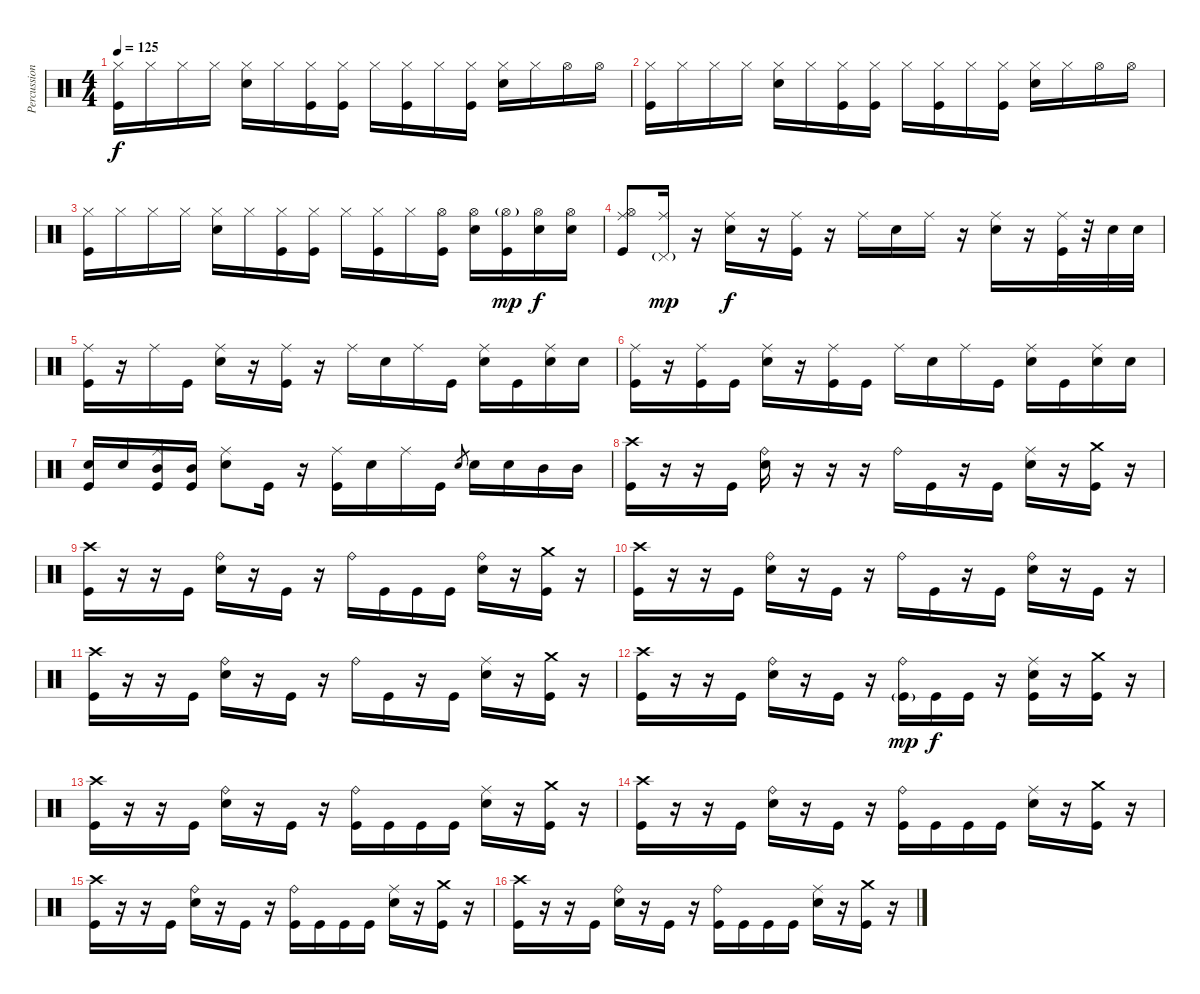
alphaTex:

\track ("Percussion" "Percussion") {instrument percussion}
\staff {score}
\articulation defaults
\ts (4 4)
\tempo 125
\clef neutral
\ks c
("Hi-Hat (closed)" "Kick (hit)").16{dy f} "Hi-Hat (closed)".16 "Hi-Hat (closed)".16 "Hi-Hat (closed)".16 ("Hi-Hat (closed)" "Electric Snare (hit)").16 "Hi-Hat (closed)".16 ("Hi-Hat (closed)" "Kick (hit)").16 ("Hi-Hat (closed)" "Kick (hit)").16 "Hi-Hat (closed)".16 ("Hi-Hat (closed)" "Kick (hit)").16 "Hi-Hat (closed)".16 ("Hi-Hat (closed)" "Kick (hit)").16 ("Hi-Hat (closed)" "Electric Snare (hit)").16 "Hi-Hat (closed)".16 "Hi-Hat (open)".16 "Hi-Hat (open)".16 |
("Hi-Hat (closed)" "Kick (hit)").16 "Hi-Hat (closed)".16 "Hi-Hat (closed)".16 "Hi-Hat (closed)".16 ("Hi-Hat (closed)" "Electric Snare (hit)").16 "Hi-Hat (closed)".16 ("Hi-Hat (closed)" "Kick (hit)").16 ("Hi-Hat (closed)" "Kick (hit)").16 "Hi-Hat (closed)".16 ("Hi-Hat (closed)" "Kick (hit)").16 "Hi-Hat (closed)".16 ("Hi-Hat (closed)" "Kick (hit)").16 ("Hi-Hat (closed)" "Electric Snare (hit)").16 "Hi-Hat (closed)".16 "Hi-Hat (open)".16 "Hi-Hat (open)".16 |
("Hi-Hat (closed)" "Kick (hit)").16 "Hi-Hat (closed)".16 "Hi-Hat (closed)".16 "Hi-Hat (closed)".16 ("Hi-Hat (closed)" "Electric Snare (hit)").16 "Hi-Hat (closed)".16 ("Hi-Hat (closed)" "Kick (hit)").16 ("Hi-Hat (closed)" "Kick (hit)").16 "Hi-Hat (closed)".16 ("Hi-Hat (closed)" "Kick (hit)").16 "Hi-Hat (closed)".16 ("Hi-Hat (open)" "Kick (hit)").16 ("Hi-Hat (open)" "Electric Snare (hit)").16 ("Hi-Hat (open)"{g} "Kick (hit)").16{dy mp} ("Hi-Hat (open)" "Electric Snare (hit)").16{dy f} ("Hi-Hat (open)" "Electric Snare (hit)").16 |
("Ride (middle)" "Hi-Hat (open)" "Kick (hit)").8 ("Ride (middle)" "Pedal Hi-Hat (hit)"{g}).16{dy mp} r.16 ("Ride (middle)" "Electric Snare (hit)").16{dy f} r.16 ("Ride (middle)" "Kick (hit)").16 r.16 "Ride (middle)".16 "Electric Snare (hit)".16 "Ride (middle)".16 r.16 ("Ride (middle)" "Electric Snare (hit)").16 r.16 ("Ride (middle)" "Kick (hit)").32 r.32 "Electric Snare (hit)".32 "Electric Snare (hit)".32 |
("Ride (middle)" "Kick (hit)").16 r.16 "Ride (middle)".16 "Kick (hit)".16 ("Ride (middle)" "Electric Snare (hit)").16 r.16 ("Ride (middle)" "Kick (hit)").16 r.16 "Ride (middle)".16 "Electric Snare (hit)".16 "Ride (middle)".16 "Kick (hit)".16 ("Ride (middle)" "Electric Snare (hit)").16 "Kick (hit)".16 ("Ride (middle)" "Electric Snare (hit)").16 "Electric Snare (hit)".16 |
("Ride (middle)" "Kick (hit)").16 r.16 ("Ride (middle)" "Kick (hit)").16 "Kick (hit)".16 ("Ride (middle)" "Electric Snare (hit)").16 r.16 ("Ride (middle)" "Kick (hit)").16 "Kick (hit)".16 "Ride (middle)".16 "Electric Snare (hit)".16 "Ride (middle)".16 "Kick (hit)".16 ("Ride (middle)" "Electric Snare (hit)").16 "Kick (hit)".16 ("Ride (middle)" "Electric Snare (hit)").16 "Electric Snare (hit)".16 |
("Electric Snare (hit)" "Kick (hit)").16 "Electric Snare (hit)".16 ("Ride (middle)" "Mid Tom (hit)" "Kick (hit)").16 ("Mid Tom (hit)" "Kick (hit)").16 ("Ride (middle)" "Electric Snare (hit)").8 "Kick (hit)".16 r.16 ("Ride (middle)" "Kick (hit)").16 "Electric Snare (hit)".16 "Ride (middle)".16 "Kick (hit)".16 "Electric Snare (hit)".8{gr} "Electric Snare (hit)".16 "Electric Snare (hit)".16 "Mid Tom (hit)".16 "Mid Tom (hit)".16 |
("Crash high (hit)" "Kick (hit)").16 r.16 r.16 "Kick (hit)".16 ("Ride (bell)" "Electric Snare (hit)").16 r.16 r.16 r.16 "Ride (bell)".16 "Kick (hit)".16 r.16 "Kick (hit)".16 ("Ride (middle)" "Electric Snare (hit)").16 r.16 ("Crash medium (hit)" "Kick (hit)").16 r.16 |
("Crash high (hit)" "Kick (hit)").16 r.16 r.16 "Kick (hit)".16 ("Ride (bell)" "Electric Snare (hit)").16 r.16 "Kick (hit)".16 r.16 "Ride (bell)".16 "Kick (hit)".16 "Kick (hit)".16 "Kick (hit)".16 ("Ride (bell)" "Electric Snare (hit)").16 r.16 ("Crash medium (hit)" "Kick (hit)").16 r.16 |
("Crash high (hit)" "Kick (hit)").16 r.16 r.16 "Kick (hit)".16 ("Ride (bell)" "Electric Snare (hit)").16 r.16 "Kick (hit)".16 r.16 "Ride (bell)".16 "Kick (hit)".16 r.16 "Kick (hit)".16 ("Ride (bell)" "Electric Snare (hit)").16 r.16 "Kick (hit)".16 r.16 |
("Crash high (hit)" "Kick (hit)").16 r.16 r.16 "Kick (hit)".16 ("Ride (bell)" "Electric Snare (hit)").16 r.16 "Kick (hit)".16 r.16 "Ride (bell)".16 "Kick (hit)".16 r.16 "Kick (hit)".16 ("Ride (middle)" "Electric Snare (hit)").16 r.16 ("Crash medium (hit)" "Kick (hit)").16 r.16 |
("Crash high (hit)" "Kick (hit)").16 r.16 r.16 "Kick (hit)".16 ("Ride (bell)" "Electric Snare (hit)").16 r.16 "Kick (hit)".16 r.16 ("Ride (bell)" "Kick (hit)"{g}).16{dy mp} "Kick (hit)".16{dy f} "Kick (hit)".16 r.16 ("Ride (middle)" "Electric Snare (hit)" "Kick (hit)").16 r.16 ("Crash medium (hit)" "Kick (hit)").16 r.16 |
("Crash high (hit)" "Kick (hit)").16 r.16 r.16 "Kick (hit)".16 ("Ride (bell)" "Electric Snare (hit)").16 r.16 "Kick (hit)".16 r.16 ("Ride (bell)" "Kick (hit)").16 "Kick (hit)".16 "Kick (hit)".16 "Kick (hit)".16 ("Ride (middle)" "Electric Snare (hit)").16 r.16 ("Crash medium (hit)" "Kick (hit)").16 r.16 |
("Crash high (hit)" "Kick (hit)").16 r.16 r.16 "Kick (hit)".16 ("Ride (bell)" "Electric Snare (hit)").16 r.16 "Kick (hit)".16 r.16 ("Ride (bell)" "Kick (hit)").16 "Kick (hit)".16 "Kick (hit)".16 "Kick (hit)".16 ("Ride (middle)" "Electric Snare (hit)").16 r.16 ("Crash medium (hit)" "Kick (hit)").16 r.16 |
("Crash high (hit)" "Kick (hit)").16 r.16 r.16 "Kick (hit)".16 ("Ride (bell)" "Electric Snare (hit)").16 r.16 "Kick (hit)".16 r.16 ("Ride (bell)" "Kick (hit)").16 "Kick (hit)".16 "Kick (hit)".16 "Kick (hit)".16 ("Ride (middle)" "Electric Snare (hit)").16 r.16 ("Crash medium (hit)" "Kick (hit)").16 r.16 |
("Crash high (hit)" "Kick (hit)").16 r.16 r.16 "Kick (hit)".16 ("Ride (bell)" "Electric Snare (hit)").16 r.16 "Kick (hit)".16 r.16 ("Ride (bell)" "Kick (hit)").16 "Kick (hit)".16 "Kick (hit)".16 "Kick (hit)".16 ("Ride (middle)" "Electric Snare (hit)").16 r.16 ("Crash medium (hit)" "Kick (hit)").16 r.16
